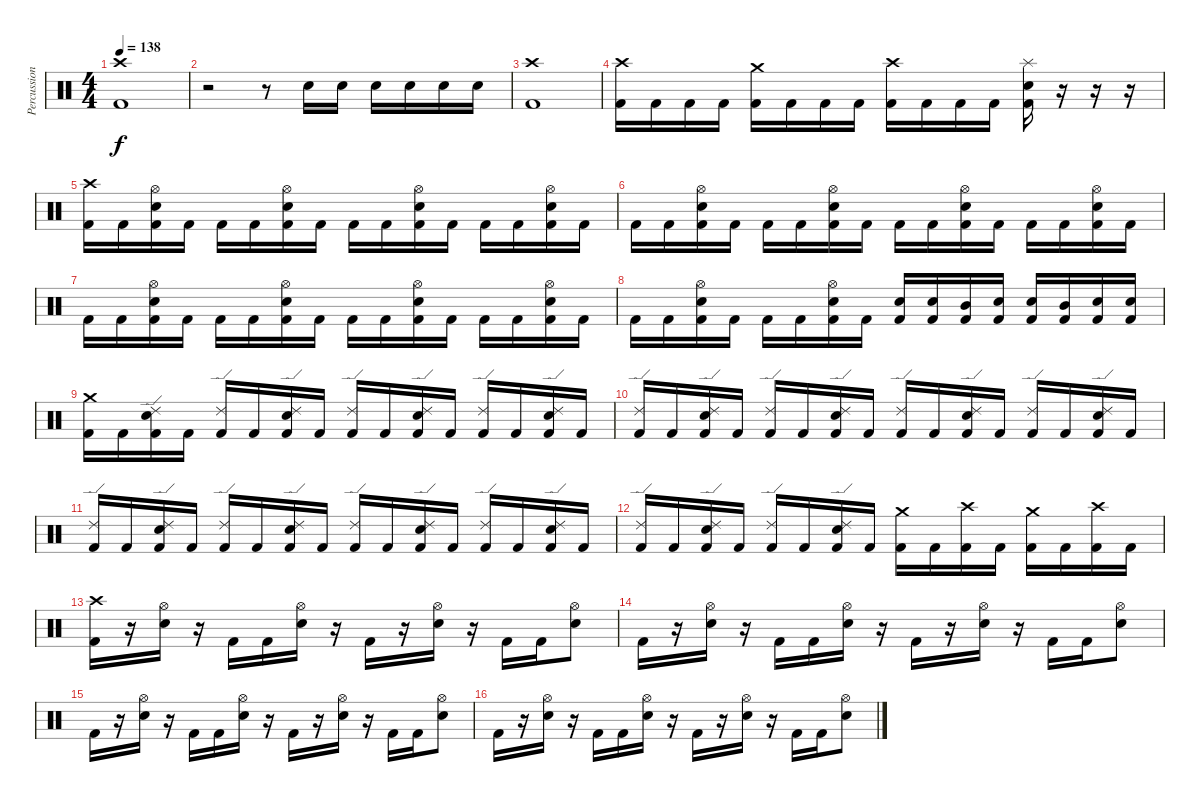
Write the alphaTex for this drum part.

\track ("Percussion" "Percussion") {instrument percussion}
\staff {score}
\articulation defaults
\ts (4 4)
\tempo 138
\clef neutral
\ks c
("Crash high (hit)" "Kick (hit) 2").1{dy f} |
r.2 r.8 "Electric Snare (hit)".16 "Electric Snare (hit)".16 "Electric Snare (hit)".16 "Electric Snare (hit)".16 "Electric Snare (hit)".16 "Electric Snare (hit)".16 |
("Crash high (hit)" "Kick (hit) 2").1 |
("Crash high (hit)" "Kick (hit) 2").16 "Kick (hit) 2".16 "Kick (hit) 2".16 "Kick (hit) 2".16 ("Crash medium (hit)" "Kick (hit) 2").16 "Kick (hit) 2".16 "Kick (hit) 2".16 "Kick (hit) 2".16 ("Crash high (hit)" "Kick (hit) 2").16 "Kick (hit) 2".16 "Kick (hit) 2".16 "Kick (hit) 2".16 ("Splash (hit)" "Electric Snare (hit)" "Kick (hit) 2").16 r.16 r.16 r.16 |
("Crash high (hit)" "Kick (hit) 2").16 "Kick (hit) 2".16 ("Hi-Hat (open)" "Electric Snare (hit)" "Kick (hit) 2").16 "Kick (hit) 2".16 "Kick (hit) 2".16 "Kick (hit) 2".16 ("Hi-Hat (open)" "Electric Snare (hit)" "Kick (hit) 2").16 "Kick (hit) 2".16 "Kick (hit) 2".16 "Kick (hit) 2".16 ("Hi-Hat (open)" "Electric Snare (hit)" "Kick (hit) 2").16 "Kick (hit) 2".16 "Kick (hit) 2".16 "Kick (hit) 2".16 ("Hi-Hat (open)" "Electric Snare (hit)" "Kick (hit) 2").16 "Kick (hit) 2".16 |
"Kick (hit) 2".16 "Kick (hit) 2".16 ("Hi-Hat (open)" "Electric Snare (hit)" "Kick (hit) 2").16 "Kick (hit) 2".16 "Kick (hit) 2".16 "Kick (hit) 2".16 ("Hi-Hat (open)" "Electric Snare (hit)" "Kick (hit) 2").16 "Kick (hit) 2".16 "Kick (hit) 2".16 "Kick (hit) 2".16 ("Hi-Hat (open)" "Electric Snare (hit)" "Kick (hit) 2").16 "Kick (hit) 2".16 "Kick (hit) 2".16 "Kick (hit) 2".16 ("Hi-Hat (open)" "Electric Snare (hit)" "Kick (hit) 2").16 "Kick (hit) 2".16 |
"Kick (hit) 2".16 "Kick (hit) 2".16 ("Hi-Hat (open)" "Electric Snare (hit)" "Kick (hit) 2").16 "Kick (hit) 2".16 "Kick (hit) 2".16 "Kick (hit) 2".16 ("Hi-Hat (open)" "Electric Snare (hit)" "Kick (hit) 2").16 "Kick (hit) 2".16 "Kick (hit) 2".16 "Kick (hit) 2".16 ("Hi-Hat (open)" "Electric Snare (hit)" "Kick (hit) 2").16 "Kick (hit) 2".16 "Kick (hit) 2".16 "Kick (hit) 2".16 ("Hi-Hat (open)" "Electric Snare (hit)" "Kick (hit) 2").16 "Kick (hit) 2".16 |
"Kick (hit) 2".16 "Kick (hit) 2".16 ("Hi-Hat (open)" "Electric Snare (hit)" "Kick (hit) 2").16 "Kick (hit) 2".16 "Kick (hit) 2".16 "Kick (hit) 2".16 ("Hi-Hat (open)" "Electric Snare (hit)" "Kick (hit) 2").16 "Kick (hit) 2".16 ("Electric Snare (hit)" "Kick (hit) 2").16 ("Electric Snare (hit)" "Kick (hit) 2").16 ("Mid Tom (hit)" "Kick (hit) 2").16 ("Electric Snare (hit)" "Kick (hit) 2").16 ("Electric Snare (hit)" "Kick (hit) 2").16 ("Mid Tom (hit)" "Kick (hit) 2").16 ("Electric Snare (hit)" "Kick (hit) 2").16 ("Electric Snare (hit)" "Kick (hit) 2").16 |
("Crash medium (hit)" "Kick (hit) 2").16 "Kick (hit) 2".16 ("Ride (edge) 2" "Electric Snare (hit)" "Kick (hit) 2").16 "Kick (hit) 2".16 ("Ride (edge) 2" "Kick (hit) 2").16 "Kick (hit) 2".16 ("Ride (edge) 2" "Electric Snare (hit)" "Kick (hit) 2").16 "Kick (hit) 2".16 ("Ride (edge) 2" "Kick (hit) 2").16 "Kick (hit) 2".16 ("Ride (edge) 2" "Electric Snare (hit)" "Kick (hit) 2").16 "Kick (hit) 2".16 ("Ride (edge) 2" "Kick (hit) 2").16 "Kick (hit) 2".16 ("Ride (edge) 2" "Electric Snare (hit)" "Kick (hit) 2").16 "Kick (hit) 2".16 |
("Ride (edge) 2" "Kick (hit) 2").16 "Kick (hit) 2".16 ("Ride (edge) 2" "Electric Snare (hit)" "Kick (hit) 2").16 "Kick (hit) 2".16 ("Ride (edge) 2" "Kick (hit) 2").16 "Kick (hit) 2".16 ("Ride (edge) 2" "Electric Snare (hit)" "Kick (hit) 2").16 "Kick (hit) 2".16 ("Ride (edge) 2" "Kick (hit) 2").16 "Kick (hit) 2".16 ("Ride (edge) 2" "Electric Snare (hit)" "Kick (hit) 2").16 "Kick (hit) 2".16 ("Ride (edge) 2" "Kick (hit) 2").16 "Kick (hit) 2".16 ("Ride (edge) 2" "Electric Snare (hit)" "Kick (hit) 2").16 "Kick (hit) 2".16 |
("Ride (edge) 2" "Kick (hit) 2").16 "Kick (hit) 2".16 ("Ride (edge) 2" "Electric Snare (hit)" "Kick (hit) 2").16 "Kick (hit) 2".16 ("Ride (edge) 2" "Kick (hit) 2").16 "Kick (hit) 2".16 ("Ride (edge) 2" "Electric Snare (hit)" "Kick (hit) 2").16 "Kick (hit) 2".16 ("Ride (edge) 2" "Kick (hit) 2").16 "Kick (hit) 2".16 ("Ride (edge) 2" "Electric Snare (hit)" "Kick (hit) 2").16 "Kick (hit) 2".16 ("Ride (edge) 2" "Kick (hit) 2").16 "Kick (hit) 2".16 ("Ride (edge) 2" "Electric Snare (hit)" "Kick (hit) 2").16 "Kick (hit) 2".16 |
("Ride (edge) 2" "Kick (hit) 2").16 "Kick (hit) 2".16 ("Ride (edge) 2" "Electric Snare (hit)" "Kick (hit) 2").16 "Kick (hit) 2".16 ("Ride (edge) 2" "Kick (hit) 2").16 "Kick (hit) 2".16 ("Ride (edge) 2" "Electric Snare (hit)" "Kick (hit) 2").16 "Kick (hit) 2".16 ("Crash medium (hit)" "Kick (hit) 2").16 "Kick (hit) 2".16 ("Crash high (hit)" "Kick (hit) 2").16 "Kick (hit) 2".16 ("Crash medium (hit)" "Kick (hit) 2").16 "Kick (hit) 2".16 ("Crash high (hit)" "Kick (hit) 2").16 "Kick (hit) 2".16 |
("Crash high (hit)" "Kick (hit) 2").16 r.16 ("Hi-Hat (open)" "Electric Snare (hit)").16 r.16 "Kick (hit) 2".16 "Kick (hit) 2".16 ("Hi-Hat (open)" "Electric Snare (hit)").16 r.16 "Kick (hit) 2".16 r.16 ("Hi-Hat (open)" "Electric Snare (hit)").16 r.16 "Kick (hit) 2".16 "Kick (hit) 2".16 ("Hi-Hat (open)" "Electric Snare (hit)").8 |
"Kick (hit) 2".16 r.16 ("Hi-Hat (open)" "Electric Snare (hit)").16 r.16 "Kick (hit) 2".16 "Kick (hit) 2".16 ("Hi-Hat (open)" "Electric Snare (hit)").16 r.16 "Kick (hit) 2".16 r.16 ("Hi-Hat (open)" "Electric Snare (hit)").16 r.16 "Kick (hit) 2".16 "Kick (hit) 2".16 ("Hi-Hat (open)" "Electric Snare (hit)").8 |
"Kick (hit) 2".16 r.16 ("Hi-Hat (open)" "Electric Snare (hit)").16 r.16 "Kick (hit) 2".16 "Kick (hit) 2".16 ("Hi-Hat (open)" "Electric Snare (hit)").16 r.16 "Kick (hit) 2".16 r.16 ("Hi-Hat (open)" "Electric Snare (hit)").16 r.16 "Kick (hit) 2".16 "Kick (hit) 2".16 ("Hi-Hat (open)" "Electric Snare (hit)").8 |
"Kick (hit) 2".16 r.16 ("Hi-Hat (open)" "Electric Snare (hit)").16 r.16 "Kick (hit) 2".16 "Kick (hit) 2".16 ("Hi-Hat (open)" "Electric Snare (hit)").16 r.16 "Kick (hit) 2".16 r.16 ("Hi-Hat (open)" "Electric Snare (hit)").16 r.16 "Kick (hit) 2".16 "Kick (hit) 2".16 ("Hi-Hat (open)" "Electric Snare (hit)").8
